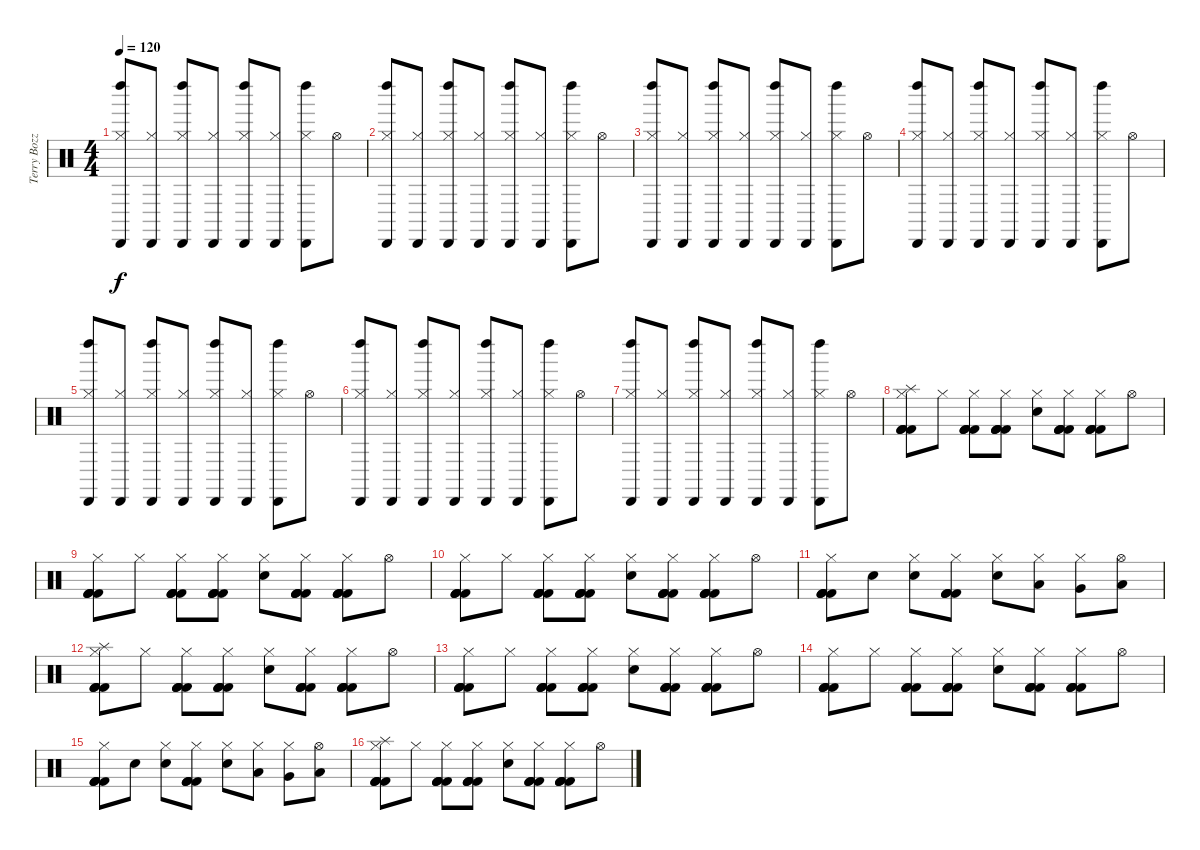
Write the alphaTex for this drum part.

\track ("Terry Bozzio" "Terry Bozz") {instrument percussion}
\staff {score}
\articulation defaults
\ts (4 4)
\tempo 120
\clef neutral
\ks c
("Hi-Hat (closed)" "Cabasa (hit)" "Left Maraca (hit)").8{dy f} ("Hi-Hat (closed)" "Cabasa (hit)").8 ("Hi-Hat (closed)" "Cabasa (hit)" "Left Maraca (hit)").8 ("Hi-Hat (closed)" "Cabasa (hit)").8 ("Hi-Hat (closed)" "Cabasa (hit)" "Left Maraca (hit)").8 ("Hi-Hat (closed)" "Cabasa (hit)").8 ("Hi-Hat (closed)" "Cabasa (hit)" "Left Maraca (hit)").8 "Hi-Hat (open)".8 |
("Hi-Hat (closed)" "Cabasa (hit)" "Left Maraca (hit)").8 ("Hi-Hat (closed)" "Cabasa (hit)").8 ("Hi-Hat (closed)" "Cabasa (hit)" "Left Maraca (hit)").8 ("Hi-Hat (closed)" "Cabasa (hit)").8 ("Hi-Hat (closed)" "Cabasa (hit)" "Left Maraca (hit)").8 ("Hi-Hat (closed)" "Cabasa (hit)").8 ("Hi-Hat (closed)" "Cabasa (hit)" "Left Maraca (hit)").8 "Hi-Hat (open)".8 |
("Hi-Hat (closed)" "Cabasa (hit)" "Left Maraca (hit)").8 ("Hi-Hat (closed)" "Cabasa (hit)").8 ("Hi-Hat (closed)" "Cabasa (hit)" "Left Maraca (hit)").8 ("Hi-Hat (closed)" "Cabasa (hit)").8 ("Hi-Hat (closed)" "Cabasa (hit)" "Left Maraca (hit)").8 ("Hi-Hat (closed)" "Cabasa (hit)").8 ("Hi-Hat (closed)" "Cabasa (hit)" "Left Maraca (hit)").8 "Hi-Hat (open)".8 |
("Hi-Hat (closed)" "Cabasa (hit)" "Left Maraca (hit)").8 ("Hi-Hat (closed)" "Cabasa (hit)").8 ("Hi-Hat (closed)" "Cabasa (hit)" "Left Maraca (hit)").8 ("Hi-Hat (closed)" "Cabasa (hit)").8 ("Hi-Hat (closed)" "Cabasa (hit)" "Left Maraca (hit)").8 ("Hi-Hat (closed)" "Cabasa (hit)").8 ("Hi-Hat (closed)" "Cabasa (hit)" "Left Maraca (hit)").8 "Hi-Hat (open)".8 |
("Hi-Hat (closed)" "Cabasa (hit)" "Left Maraca (hit)").8 ("Hi-Hat (closed)" "Cabasa (hit)").8 ("Hi-Hat (closed)" "Cabasa (hit)" "Left Maraca (hit)").8 ("Hi-Hat (closed)" "Cabasa (hit)").8 ("Hi-Hat (closed)" "Cabasa (hit)" "Left Maraca (hit)").8 ("Hi-Hat (closed)" "Cabasa (hit)").8 ("Hi-Hat (closed)" "Cabasa (hit)" "Left Maraca (hit)").8 "Hi-Hat (open)".8 |
("Hi-Hat (closed)" "Cabasa (hit)" "Left Maraca (hit)").8 ("Hi-Hat (closed)" "Cabasa (hit)").8 ("Hi-Hat (closed)" "Cabasa (hit)" "Left Maraca (hit)").8 ("Hi-Hat (closed)" "Cabasa (hit)").8 ("Hi-Hat (closed)" "Cabasa (hit)" "Left Maraca (hit)").8 ("Hi-Hat (closed)" "Cabasa (hit)").8 ("Hi-Hat (closed)" "Cabasa (hit)" "Left Maraca (hit)").8 "Hi-Hat (open)".8 |
("Hi-Hat (closed)" "Cabasa (hit)" "Left Maraca (hit)").8 ("Hi-Hat (closed)" "Cabasa (hit)").8 ("Hi-Hat (closed)" "Cabasa (hit)" "Left Maraca (hit)").8 ("Hi-Hat (closed)" "Cabasa (hit)").8 ("Hi-Hat (closed)" "Cabasa (hit)" "Left Maraca (hit)").8 ("Hi-Hat (closed)" "Cabasa (hit)").8 ("Hi-Hat (closed)" "Cabasa (hit)" "Left Maraca (hit)").8 "Hi-Hat (open)".8 |
("Splash (hit)" "Hi-Hat (closed)" "Kick (hit) 2" "Kick (hit) 2" "Kick (hit) 2" "Kick (hit) 2").8{volume 16} "Hi-Hat (closed)".8 ("Hi-Hat (closed)" "Kick (hit) 2" "Kick (hit) 2" "Kick (hit) 2" "Kick (hit) 2").8 ("Hi-Hat (closed)" "Kick (hit) 2" "Kick (hit) 2" "Kick (hit) 2" "Kick (hit) 2").8 ("Hi-Hat (closed)" "Snare (hit) 2").8 ("Hi-Hat (closed)" "Kick (hit) 2" "Kick (hit) 2" "Kick (hit) 2" "Kick (hit) 2").8 ("Hi-Hat (closed)" "Kick (hit) 2" "Kick (hit) 2" "Kick (hit) 2" "Kick (hit) 2").8 "Hi-Hat (open)".8 |
("Hi-Hat (closed)" "Kick (hit) 2" "Kick (hit) 2" "Kick (hit) 2" "Kick (hit) 2").8 "Hi-Hat (closed)".8 ("Hi-Hat (closed)" "Kick (hit) 2" "Kick (hit) 2" "Kick (hit) 2" "Kick (hit) 2").8 ("Hi-Hat (closed)" "Kick (hit) 2" "Kick (hit) 2" "Kick (hit) 2" "Kick (hit) 2").8 ("Hi-Hat (closed)" "Snare (hit) 2").8 ("Hi-Hat (closed)" "Kick (hit) 2" "Kick (hit) 2" "Kick (hit) 2" "Kick (hit) 2").8 ("Hi-Hat (closed)" "Kick (hit) 2" "Kick (hit) 2" "Kick (hit) 2" "Kick (hit) 2").8 "Hi-Hat (open)".8 |
("Hi-Hat (closed)" "Kick (hit) 2" "Kick (hit) 2" "Kick (hit) 2" "Kick (hit) 2").8 "Hi-Hat (closed)".8 ("Hi-Hat (closed)" "Kick (hit) 2" "Kick (hit) 2" "Kick (hit) 2" "Kick (hit) 2").8 ("Hi-Hat (closed)" "Kick (hit) 2" "Kick (hit) 2" "Kick (hit) 2" "Kick (hit) 2").8 ("Hi-Hat (closed)" "Snare (hit) 2").8 ("Hi-Hat (closed)" "Kick (hit) 2" "Kick (hit) 2" "Kick (hit) 2" "Kick (hit) 2").8 ("Hi-Hat (closed)" "Kick (hit) 2" "Kick (hit) 2" "Kick (hit) 2" "Kick (hit) 2").8 "Hi-Hat (open)".8 |
("Hi-Hat (closed)" "Kick (hit) 2" "Kick (hit) 2" "Kick (hit) 2" "Kick (hit) 2").8 "Snare (hit) 2".8 ("Hi-Hat (closed)" "Snare (hit) 2").8 ("Hi-Hat (closed)" "Kick (hit) 2" "Kick (hit) 2" "Kick (hit) 2" "Kick (hit) 2").8 ("Hi-Hat (closed)" "Snare (hit) 2").8 ("Hi-Hat (closed)" "Low Tom (hit)").8 ("Hi-Hat (closed)" "Very Low Tom (hit)").8 ("Hi-Hat (open)" "Low Floor Tom (hit)").8 |
("Splash (hit)" "Hi-Hat (closed)" "Kick (hit) 2" "Kick (hit) 2" "Kick (hit) 2" "Kick (hit) 2").8{volume 16} "Hi-Hat (closed)".8 ("Hi-Hat (closed)" "Kick (hit) 2" "Kick (hit) 2" "Kick (hit) 2" "Kick (hit) 2").8 ("Hi-Hat (closed)" "Kick (hit) 2" "Kick (hit) 2" "Kick (hit) 2" "Kick (hit) 2").8 ("Hi-Hat (closed)" "Snare (hit) 2").8 ("Hi-Hat (closed)" "Kick (hit) 2" "Kick (hit) 2" "Kick (hit) 2" "Kick (hit) 2").8 ("Hi-Hat (closed)" "Kick (hit) 2" "Kick (hit) 2" "Kick (hit) 2" "Kick (hit) 2").8 "Hi-Hat (open)".8 |
("Hi-Hat (closed)" "Kick (hit) 2" "Kick (hit) 2" "Kick (hit) 2" "Kick (hit) 2").8 "Hi-Hat (closed)".8 ("Hi-Hat (closed)" "Kick (hit) 2" "Kick (hit) 2" "Kick (hit) 2" "Kick (hit) 2").8 ("Hi-Hat (closed)" "Kick (hit) 2" "Kick (hit) 2" "Kick (hit) 2" "Kick (hit) 2").8 ("Hi-Hat (closed)" "Snare (hit) 2").8 ("Hi-Hat (closed)" "Kick (hit) 2" "Kick (hit) 2" "Kick (hit) 2" "Kick (hit) 2").8 ("Hi-Hat (closed)" "Kick (hit) 2" "Kick (hit) 2" "Kick (hit) 2" "Kick (hit) 2").8 "Hi-Hat (open)".8 |
("Hi-Hat (closed)" "Kick (hit) 2" "Kick (hit) 2" "Kick (hit) 2" "Kick (hit) 2").8 "Hi-Hat (closed)".8 ("Hi-Hat (closed)" "Kick (hit) 2" "Kick (hit) 2" "Kick (hit) 2" "Kick (hit) 2").8 ("Hi-Hat (closed)" "Kick (hit) 2" "Kick (hit) 2" "Kick (hit) 2" "Kick (hit) 2").8 ("Hi-Hat (closed)" "Snare (hit) 2").8 ("Hi-Hat (closed)" "Kick (hit) 2" "Kick (hit) 2" "Kick (hit) 2" "Kick (hit) 2").8 ("Hi-Hat (closed)" "Kick (hit) 2" "Kick (hit) 2" "Kick (hit) 2" "Kick (hit) 2").8 "Hi-Hat (open)".8 |
("Hi-Hat (closed)" "Kick (hit) 2" "Kick (hit) 2" "Kick (hit) 2" "Kick (hit) 2").8 "Snare (hit) 2".8 ("Hi-Hat (closed)" "Snare (hit) 2").8 ("Hi-Hat (closed)" "Kick (hit) 2" "Kick (hit) 2" "Kick (hit) 2" "Kick (hit) 2").8 ("Hi-Hat (closed)" "Snare (hit) 2").8 ("Hi-Hat (closed)" "Low Tom (hit)").8 ("Hi-Hat (closed)" "Very Low Tom (hit)").8 ("Hi-Hat (open)" "Low Floor Tom (hit)").8 |
("Splash (hit)" "Hi-Hat (closed)" "Kick (hit) 2" "Kick (hit) 2" "Kick (hit) 2" "Kick (hit) 2").8{volume 16} "Hi-Hat (closed)".8 ("Hi-Hat (closed)" "Kick (hit) 2" "Kick (hit) 2" "Kick (hit) 2" "Kick (hit) 2").8 ("Hi-Hat (closed)" "Kick (hit) 2" "Kick (hit) 2" "Kick (hit) 2" "Kick (hit) 2").8 ("Hi-Hat (closed)" "Snare (hit) 2").8 ("Hi-Hat (closed)" "Kick (hit) 2" "Kick (hit) 2" "Kick (hit) 2" "Kick (hit) 2").8 ("Hi-Hat (closed)" "Kick (hit) 2" "Kick (hit) 2" "Kick (hit) 2" "Kick (hit) 2").8 "Hi-Hat (open)".8
